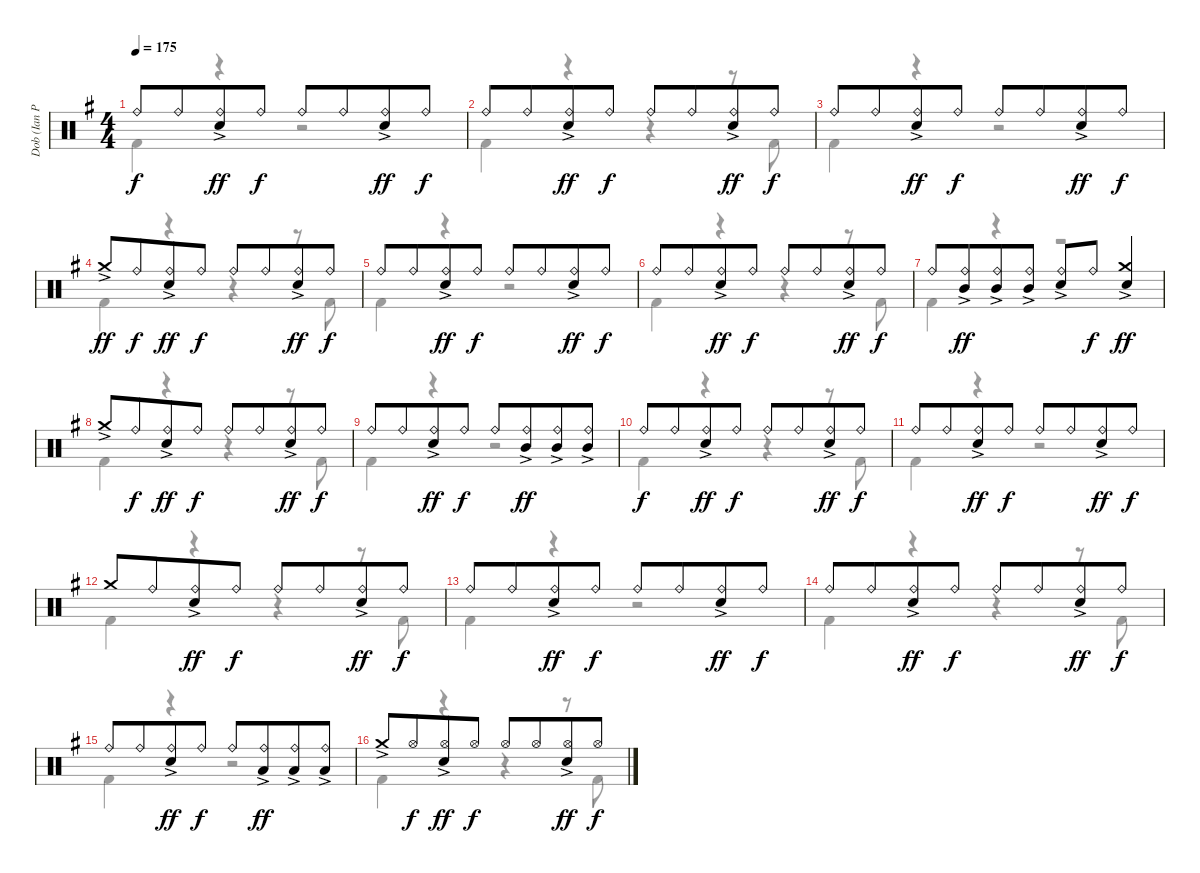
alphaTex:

\track ("Dob (Ian Paice)" "Dob (Ian P") {instrument percussion}
\staff {score}
\articulation defaults
\voice
\ts (4 4)
\tempo 175
\clef neutral
\ks g "Ride (bell)".8{dy f} "Ride (bell)".8{beam merge}
("Ride (bell)" "Electric Snare (hit)"{ac}).8{dy ff} "Ride (bell)".8{dy f} "Ride (bell)".8 "Ride (bell)".8{beam merge} ("Ride (bell)" "Electric Snare (hit)"{ac}).8{dy ff} "Ride (bell)".8{dy f} |
"Ride (bell)".8 "Ride (bell)".8{beam merge} ("Ride (bell)" "Electric Snare (hit)"{ac}).8{dy ff} "Ride (bell)".8{dy f} "Ride (bell)".8 "Ride (bell)".8{beam merge} ("Ride (bell)" "Electric Snare (hit)"{ac}).8{dy ff} "Ride (bell)".8{dy f} |
"Ride (bell)".8 "Ride (bell)".8{beam merge} ("Ride (bell)" "Electric Snare (hit)"{ac}).8{dy ff} "Ride (bell)".8{dy f} "Ride (bell)".8 "Ride (bell)".8{beam merge} ("Ride (bell)" "Electric Snare (hit)"{ac}).8{dy ff} "Ride (bell)".8{dy f} |
"Crash medium (hit)"{ac}.8{dy ff} "Ride (bell)".8{dy f beam merge} ("Ride (bell)" "Electric Snare (hit)"{ac}).8{dy ff} "Ride (bell)".8{dy f} "Ride (bell)".8 "Ride (bell)".8{beam merge} ("Ride (bell)" "Electric Snare (hit)"{ac}).8{dy ff} "Ride (bell)".8{dy f} |
"Ride (bell)".8 "Ride (bell)".8{beam merge} ("Ride (bell)" "Electric Snare (hit)"{ac}).8{dy ff} "Ride (bell)".8{dy f} "Ride (bell)".8 "Ride (bell)".8{beam merge} ("Ride (bell)" "Electric Snare (hit)"{ac}).8{dy ff} "Ride (bell)".8{dy f} |
"Ride (bell)".8 "Ride (bell)".8{beam merge} ("Ride (bell)" "Electric Snare (hit)"{ac}).8{dy ff} "Ride (bell)".8{dy f} "Ride (bell)".8 "Ride (bell)".8{beam merge} ("Ride (bell)" "Electric Snare (hit)"{ac}).8{dy ff} "Ride (bell)".8{dy f} |
"Ride (bell)".8 ("Ride (bell)" "Mid Tom (hit)"{ac}).8{dy ff beam merge} ("Ride (bell)" "Mid Tom (hit)"{ac}).8 ("Ride (bell)" "Mid Tom (hit)"{ac}).8 ("Ride (bell)" "Electric Snare (hit)"{ac}).8 "Ride (bell)".8{dy f beam merge} ("Crash medium (hit)" "Electric Snare (hit)"{ac}).4{dy ff} |
"Crash medium (hit)"{ac}.8 "Ride (bell)".8{dy f beam merge} ("Ride (bell)" "Electric Snare (hit)"{ac}).8{dy ff} "Ride (bell)".8{dy f} "Ride (bell)".8 "Ride (bell)".8{beam merge} ("Ride (bell)" "Electric Snare (hit)"{ac}).8{dy ff} "Ride (bell)".8{dy f} |
"Ride (bell)".8 "Ride (bell)".8{beam merge} ("Ride (bell)" "Electric Snare (hit)"{ac}).8{dy ff} "Ride (bell)".8{dy f} "Ride (bell)".8 ("Ride (bell)" "Mid Tom (hit)"{ac}).8{dy ff beam merge} ("Ride (bell)" "Mid Tom (hit)"{ac}).8 ("Ride (bell)" "Mid Tom (hit)"{ac}).8 |
"Ride (bell)".8{dy f} "Ride (bell)".8{beam merge} ("Ride (bell)" "Electric Snare (hit)"{ac}).8{dy ff} "Ride (bell)".8{dy f} "Ride (bell)".8 "Ride (bell)".8{beam merge} ("Ride (bell)" "Electric Snare (hit)"{ac}).8{dy ff} "Ride (bell)".8{dy f} |
"Ride (bell)".8 "Ride (bell)".8{beam merge} ("Ride (bell)" "Electric Snare (hit)"{ac}).8{dy ff} "Ride (bell)".8{dy f} "Ride (bell)".8 "Ride (bell)".8{beam merge} ("Ride (bell)" "Electric Snare (hit)"{ac}).8{dy ff} "Ride (bell)".8{dy f} |
"Crash medium (hit)".8 "Ride (bell)".8{beam merge} ("Ride (bell)" "Electric Snare (hit)"{ac}).8{dy ff} "Ride (bell)".8{dy f} "Ride (bell)".8 "Ride (bell)".8{beam merge} ("Ride (bell)" "Electric Snare (hit)"{ac}).8{dy ff} "Ride (bell)".8{dy f} |
"Ride (bell)".8 "Ride (bell)".8{beam merge} ("Ride (bell)" "Electric Snare (hit)"{ac}).8{dy ff} "Ride (bell)".8{dy f} "Ride (bell)".8 "Ride (bell)".8{beam merge} ("Ride (bell)" "Electric Snare (hit)"{ac}).8{dy ff} "Ride (bell)".8{dy f} |
"Ride (bell)".8 "Ride (bell)".8{beam merge} ("Ride (bell)" "Electric Snare (hit)"{ac}).8{dy ff} "Ride (bell)".8{dy f} "Ride (bell)".8 "Ride (bell)".8{beam merge} ("Ride (bell)" "Electric Snare (hit)"{ac}).8{dy ff} "Ride (bell)".8{dy f} |
"Ride (bell)".8 "Ride (bell)".8{beam merge} ("Ride (bell)" "Electric Snare (hit)"{ac}).8{dy ff} "Ride (bell)".8{dy f} "Ride (bell)".8 ("Ride (bell)" "Low Tom (hit)"{ac}).8{dy ff beam merge} ("Ride (bell)" "Low Tom (hit)"{ac}).8 ("Ride (bell)" "Low Tom (hit)"{ac}).8 |
"Crash medium (hit)"{ac}.8 "Hi-Hat (open)".8{dy f beam merge} ("Hi-Hat (open)" "Electric Snare (hit)"{ac}).8{dy ff} "Hi-Hat (open)".8{dy f} "Hi-Hat (open)".8 "Hi-Hat (open)".8{beam merge} ("Hi-Hat (open)" "Electric Snare (hit)"{ac}).8{dy ff} "Hi-Hat (open)".8{dy f}
\voice
\clef neutral
\ottava regular
\simile none
\ks g "Kick (hit) 2".4{dy f}
r.4 r.2 |
"Kick (hit) 2".4 r.4 r.4 r.8 "Kick (hit) 2".8 |
"Kick (hit) 2".4 r.4 r.2 |
"Kick (hit) 2".4 r.4 r.4 r.8 "Kick (hit) 2".8 |
"Kick (hit) 2".4 r.4 r.2 |
"Kick (hit) 2".4 r.4 r.4 r.8 "Kick (hit) 2".8 |
"Kick (hit) 2".4 r.4 r.2 |
"Kick (hit) 2".4 r.4 r.4 r.8 "Kick (hit) 2".8 |
"Kick (hit) 2".4 r.4 r.2 |
"Kick (hit) 2".4 r.4 r.4 r.8 "Kick (hit) 2".8 |
"Kick (hit) 2".4 r.4 r.2 |
"Kick (hit) 2".4 r.4 r.4 r.8 "Kick (hit) 2".8 |
"Kick (hit) 2".4 r.4 r.2 |
"Kick (hit) 2".4 r.4 r.4 r.8 "Kick (hit) 2".8 |
"Kick (hit) 2".4 r.4 r.2 |
"Kick (hit) 2".4 r.4 r.4 r.8 "Kick (hit) 2".8
